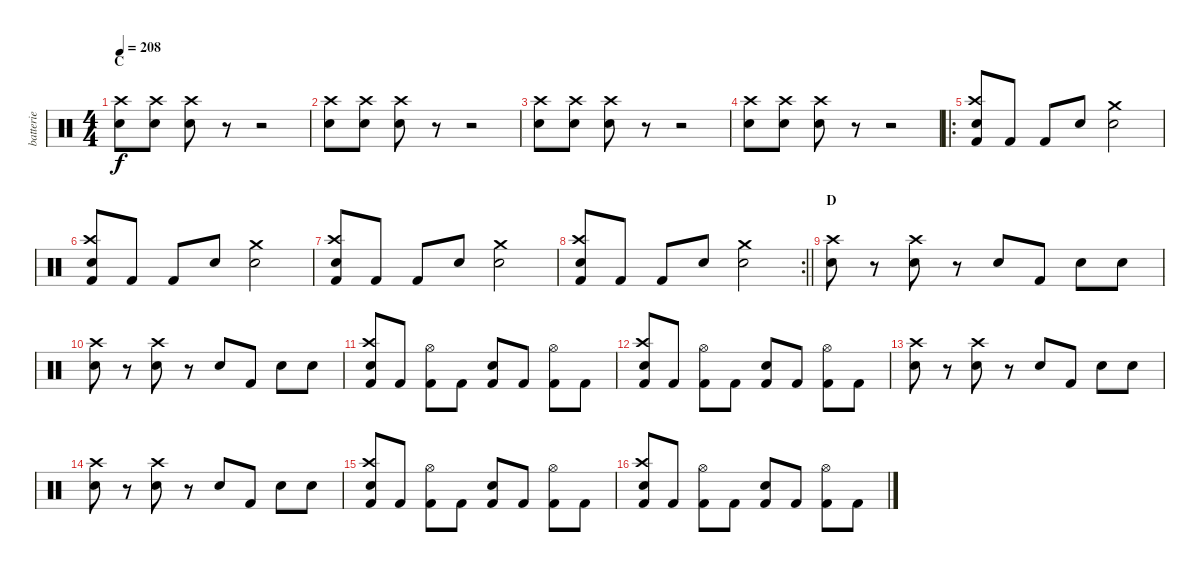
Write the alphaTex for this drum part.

\track ("batterie" "batterie") {instrument percussion}
\staff {score}
\articulation defaults
\ts (4 4)
\section ("" "C")
\tempo 208
\clef neutral
\ks c
("Snare (hit) 2" "Crash high (hit)").8{dy f} ("Snare (hit) 2" "Crash high (hit)").8 ("Snare (hit) 2" "Crash high (hit)").8 r.8 r.2 |
("Snare (hit) 2" "Crash high (hit)").8 ("Snare (hit) 2" "Crash high (hit)").8 ("Snare (hit) 2" "Crash high (hit)").8 r.8 r.2 |
("Snare (hit) 2" "Crash high (hit)").8 ("Snare (hit) 2" "Crash high (hit)").8 ("Snare (hit) 2" "Crash high (hit)").8 r.8 r.2 |
("Snare (hit) 2" "Crash high (hit)").8 ("Snare (hit) 2" "Crash high (hit)").8 ("Snare (hit) 2" "Crash high (hit)").8 r.8 r.2 |
\ro
("Snare (hit) 2" "Crash high (hit)" "Kick (hit) 2").8 "Kick (hit) 2".8 "Kick (hit) 2".8 "Snare (hit)".8 ("Electric Snare (hit)" "Crash medium (hit)").2 |
("Snare (hit) 2" "Crash high (hit)" "Kick (hit) 2").8 "Kick (hit) 2".8 "Kick (hit) 2".8 "Snare (hit)".8 ("Electric Snare (hit)" "Crash medium (hit)").2 |
("Snare (hit) 2" "Crash high (hit)" "Kick (hit) 2").8 "Kick (hit) 2".8 "Kick (hit) 2".8 "Snare (hit)".8 ("Electric Snare (hit)" "Crash medium (hit)").2 |
\rc 2
\barLineRight lightlight
("Snare (hit) 2" "Crash high (hit)" "Kick (hit) 2").8 "Kick (hit) 2".8 "Kick (hit) 2".8 "Snare (hit)".8 ("Electric Snare (hit)" "Crash medium (hit)").2 |
\section ("" "D")
("Snare (hit) 2" "Crash high (hit)").8 r.8 ("Snare (hit) 2" "Crash high (hit)").8 r.8 "Electric Snare (hit)".8 "Kick (hit) 2".8 "Snare (hit)".8 "Snare (hit)".8 |
("Snare (hit) 2" "Crash high (hit)").8 r.8 ("Snare (hit) 2" "Crash high (hit)").8 r.8 "Electric Snare (hit)".8 "Kick (hit) 2".8 "Snare (hit)".8 "Snare (hit)".8 |
("Snare (hit) 2" "Crash high (hit)" "Kick (hit) 2").8 "Kick (hit) 2".8 ("Hi-Hat (open)" "Kick (hit) 2").8 "Kick (hit) 2".8 ("Snare (hit) 2" "Kick (hit) 2").8 "Kick (hit) 2".8 ("Hi-Hat (open)" "Kick (hit) 2").8 "Kick (hit) 2".8 |
("Snare (hit) 2" "Crash high (hit)" "Kick (hit) 2").8 "Kick (hit) 2".8 ("Hi-Hat (open)" "Kick (hit) 2").8 "Kick (hit) 2".8 ("Snare (hit) 2" "Kick (hit) 2").8 "Kick (hit) 2".8 ("Hi-Hat (open)" "Kick (hit) 2").8 "Kick (hit) 2".8 |
("Snare (hit) 2" "Crash high (hit)").8 r.8 ("Snare (hit) 2" "Crash high (hit)").8 r.8 "Electric Snare (hit)".8 "Kick (hit) 2".8 "Snare (hit)".8 "Snare (hit)".8 |
("Snare (hit) 2" "Crash high (hit)").8 r.8 ("Snare (hit) 2" "Crash high (hit)").8 r.8 "Electric Snare (hit)".8 "Kick (hit) 2".8 "Snare (hit)".8 "Snare (hit)".8 |
("Snare (hit) 2" "Crash high (hit)" "Kick (hit) 2").8 "Kick (hit) 2".8 ("Hi-Hat (open)" "Kick (hit) 2").8 "Kick (hit) 2".8 ("Snare (hit) 2" "Kick (hit) 2").8 "Kick (hit) 2".8 ("Hi-Hat (open)" "Kick (hit) 2").8 "Kick (hit) 2".8 |
("Snare (hit) 2" "Crash high (hit)" "Kick (hit) 2").8 "Kick (hit) 2".8 ("Hi-Hat (open)" "Kick (hit) 2").8 "Kick (hit) 2".8 ("Snare (hit) 2" "Kick (hit) 2").8 "Kick (hit) 2".8 ("Hi-Hat (open)" "Kick (hit) 2").8 "Kick (hit) 2".8
